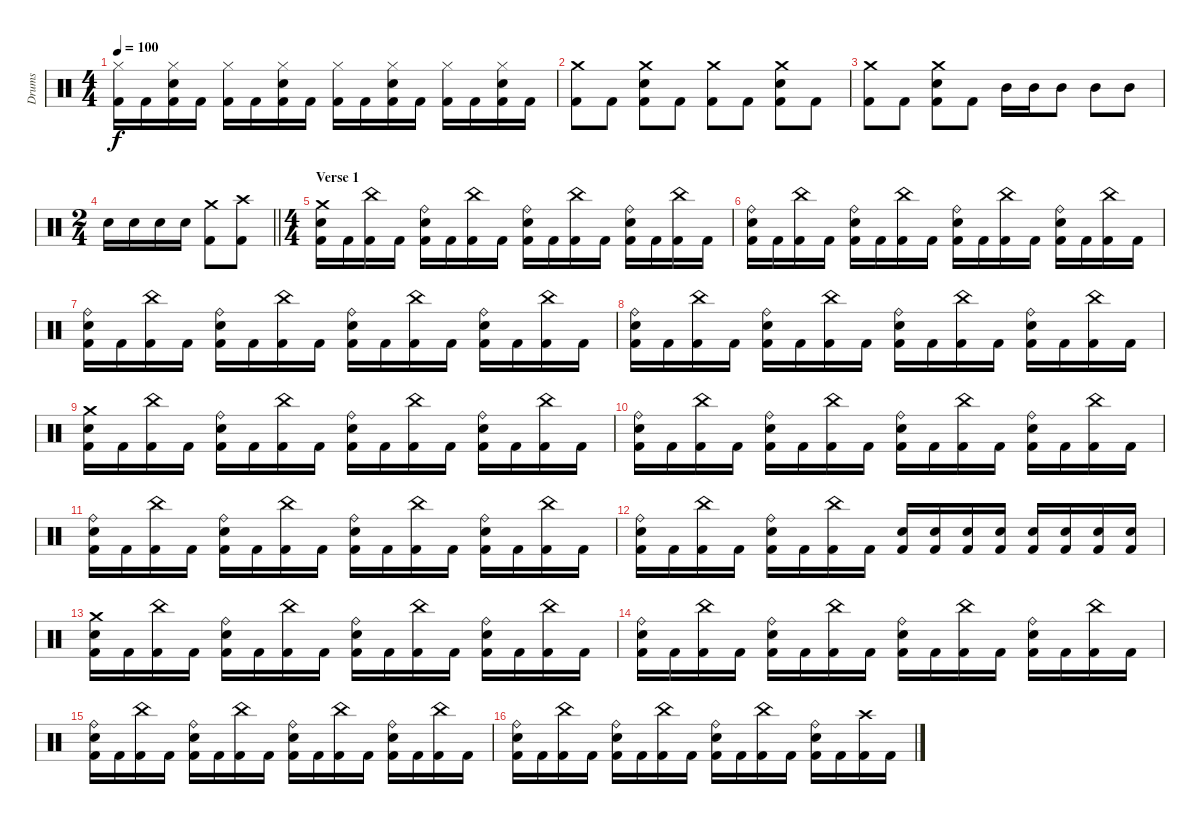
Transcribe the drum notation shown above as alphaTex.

\track ("Drums" "Drums") {instrument percussion}
\staff {score}
\articulation defaults
\ts (4 4)
\tempo 100
\clef neutral
\ks c
("Kick (hit) 2" "Hi-Hat (closed)").16{dy f} "Kick (hit) 2".16 ("Kick (hit) 2" "Snare (hit) 2" "Hi-Hat (closed)").16 "Kick (hit) 2".16 ("Kick (hit) 2" "Hi-Hat (closed)").16 "Kick (hit) 2".16 ("Kick (hit) 2" "Snare (hit) 2" "Hi-Hat (closed)").16 "Kick (hit) 2".16 ("Kick (hit) 2" "Hi-Hat (closed)").16 "Kick (hit) 2".16 ("Kick (hit) 2" "Snare (hit) 2" "Hi-Hat (closed)").16 "Kick (hit) 2".16 ("Kick (hit) 2" "Hi-Hat (closed)").16 "Kick (hit) 2".16 ("Kick (hit) 2" "Snare (hit) 2" "Hi-Hat (closed)").16 "Kick (hit) 2".16 |
("Kick (hit) 2" "Crash medium (hit)").8 "Kick (hit) 2".8 ("Kick (hit) 2" "Snare (hit) 2" "Crash medium (hit)").8 "Kick (hit) 2".8 ("Kick (hit) 2" "Crash medium (hit)").8 "Kick (hit) 2".8 ("Kick (hit) 2" "Snare (hit) 2" "Crash medium (hit)").8 "Kick (hit) 2".8 |
("Kick (hit) 2" "Crash medium (hit)").8 "Kick (hit) 2".8 ("Kick (hit) 2" "Snare (hit) 2" "Crash medium (hit)").8 "Kick (hit) 2".8 "Mid Tom (hit)".16 "Mid Tom (hit)".16 "Mid Tom (hit)".8 "Mid Tom (hit)".8 "Mid Tom (hit)".8 |
\ts (2 4)
\barLineRight lightlight "Snare (hit) 2".16 "Snare (hit) 2".16 "Snare (hit) 2".16 "Snare (hit) 2".16
("Kick (hit) 2" "Crash medium (hit)").8 ("Kick (hit) 2" "Crash high (hit)").8 |
\ts (4 4)
\section ("" "Verse 1")
("Kick (hit) 2" "Snare (hit) 2" "Crash medium (hit)").16 "Kick (hit) 2".16 ("Kick (hit) 2" "China (hit)").16 "Kick (hit) 2".16 ("Kick (hit) 2" "Snare (hit) 2" "Ride (bell)").16 "Kick (hit) 2".16 ("Kick (hit) 2" "China (hit)").16 "Kick (hit) 2".16 ("Kick (hit) 2" "Snare (hit) 2" "Ride (bell)").16 "Kick (hit) 2".16 ("Kick (hit) 2" "China (hit)").16 "Kick (hit) 2".16 ("Kick (hit) 2" "Snare (hit) 2" "Ride (bell)").16 "Kick (hit) 2".16 ("Kick (hit) 2" "China (hit)").16 "Kick (hit) 2".16 |
("Kick (hit) 2" "Snare (hit) 2" "Ride (bell)").16 "Kick (hit) 2".16 ("Kick (hit) 2" "China (hit)").16 "Kick (hit) 2".16 ("Kick (hit) 2" "Snare (hit) 2" "Ride (bell)").16 "Kick (hit) 2".16 ("Kick (hit) 2" "China (hit)").16 "Kick (hit) 2".16 ("Kick (hit) 2" "Snare (hit) 2" "Ride (bell)").16 "Kick (hit) 2".16 ("Kick (hit) 2" "China (hit)").16 "Kick (hit) 2".16 ("Kick (hit) 2" "Snare (hit) 2" "Ride (bell)").16 "Kick (hit) 2".16 ("Kick (hit) 2" "China (hit)").16 "Kick (hit) 2".16 |
("Kick (hit) 2" "Snare (hit) 2" "Ride (bell)").16 "Kick (hit) 2".16 ("Kick (hit) 2" "China (hit)").16 "Kick (hit) 2".16 ("Kick (hit) 2" "Snare (hit) 2" "Ride (bell)").16 "Kick (hit) 2".16 ("Kick (hit) 2" "China (hit)").16 "Kick (hit) 2".16 ("Kick (hit) 2" "Snare (hit) 2" "Ride (bell)").16 "Kick (hit) 2".16 ("Kick (hit) 2" "China (hit)").16 "Kick (hit) 2".16 ("Kick (hit) 2" "Snare (hit) 2" "Ride (bell)").16 "Kick (hit) 2".16 ("Kick (hit) 2" "China (hit)").16 "Kick (hit) 2".16 |
("Kick (hit) 2" "Snare (hit) 2" "Ride (bell)").16 "Kick (hit) 2".16 ("Kick (hit) 2" "China (hit)").16 "Kick (hit) 2".16 ("Kick (hit) 2" "Snare (hit) 2" "Ride (bell)").16 "Kick (hit) 2".16 ("Kick (hit) 2" "China (hit)").16 "Kick (hit) 2".16 ("Kick (hit) 2" "Snare (hit) 2" "Ride (bell)").16 "Kick (hit) 2".16 ("Kick (hit) 2" "China (hit)").16 "Kick (hit) 2".16 ("Kick (hit) 2" "Snare (hit) 2" "Ride (bell)").16 "Kick (hit) 2".16 ("Kick (hit) 2" "China (hit)").16 "Kick (hit) 2".16 |
("Kick (hit) 2" "Snare (hit) 2" "Crash medium (hit)").16 "Kick (hit) 2".16 ("Kick (hit) 2" "China (hit)").16 "Kick (hit) 2".16 ("Kick (hit) 2" "Snare (hit) 2" "Ride (bell)").16 "Kick (hit) 2".16 ("Kick (hit) 2" "China (hit)").16 "Kick (hit) 2".16 ("Kick (hit) 2" "Snare (hit) 2" "Ride (bell)").16 "Kick (hit) 2".16 ("Kick (hit) 2" "China (hit)").16 "Kick (hit) 2".16 ("Kick (hit) 2" "Snare (hit) 2" "Ride (bell)").16 "Kick (hit) 2".16 ("Kick (hit) 2" "China (hit)").16 "Kick (hit) 2".16 |
("Kick (hit) 2" "Snare (hit) 2" "Ride (bell)").16 "Kick (hit) 2".16 ("Kick (hit) 2" "China (hit)").16 "Kick (hit) 2".16 ("Kick (hit) 2" "Snare (hit) 2" "Ride (bell)").16 "Kick (hit) 2".16 ("Kick (hit) 2" "China (hit)").16 "Kick (hit) 2".16 ("Kick (hit) 2" "Snare (hit) 2" "Ride (bell)").16 "Kick (hit) 2".16 ("Kick (hit) 2" "China (hit)").16 "Kick (hit) 2".16 ("Kick (hit) 2" "Snare (hit) 2" "Ride (bell)").16 "Kick (hit) 2".16 ("Kick (hit) 2" "China (hit)").16 "Kick (hit) 2".16 |
("Kick (hit) 2" "Snare (hit) 2" "Ride (bell)").16 "Kick (hit) 2".16 ("Kick (hit) 2" "China (hit)").16 "Kick (hit) 2".16 ("Kick (hit) 2" "Snare (hit) 2" "Ride (bell)").16 "Kick (hit) 2".16 ("Kick (hit) 2" "China (hit)").16 "Kick (hit) 2".16 ("Kick (hit) 2" "Snare (hit) 2" "Ride (bell)").16 "Kick (hit) 2".16 ("Kick (hit) 2" "China (hit)").16 "Kick (hit) 2".16 ("Kick (hit) 2" "Snare (hit) 2" "Ride (bell)").16 "Kick (hit) 2".16 ("Kick (hit) 2" "China (hit)").16 "Kick (hit) 2".16 |
("Kick (hit) 2" "Snare (hit) 2" "Ride (bell)").16 "Kick (hit) 2".16 ("Kick (hit) 2" "China (hit)").16 "Kick (hit) 2".16 ("Kick (hit) 2" "Snare (hit) 2" "Ride (bell)").16 "Kick (hit) 2".16 ("Kick (hit) 2" "China (hit)").16 "Kick (hit) 2".16 ("Kick (hit) 2" "Snare (hit) 2").16 ("Kick (hit) 2" "Snare (hit) 2").16 ("Kick (hit) 2" "Snare (hit) 2").16 ("Kick (hit) 2" "Snare (hit) 2").16 ("Kick (hit) 2" "Snare (hit) 2").16 ("Kick (hit) 2" "Snare (hit) 2").16 ("Kick (hit) 2" "Snare (hit) 2").16 ("Kick (hit) 2" "Snare (hit) 2").16 |
("Kick (hit) 2" "Snare (hit) 2" "Crash medium (hit)").16 "Kick (hit) 2".16 ("Kick (hit) 2" "China (hit)").16 "Kick (hit) 2".16 ("Kick (hit) 2" "Snare (hit) 2" "Ride (bell)").16 "Kick (hit) 2".16 ("Kick (hit) 2" "China (hit)").16 "Kick (hit) 2".16 ("Kick (hit) 2" "Snare (hit) 2" "Ride (bell)").16 "Kick (hit) 2".16 ("Kick (hit) 2" "China (hit)").16 "Kick (hit) 2".16 ("Kick (hit) 2" "Snare (hit) 2" "Ride (bell)").16 "Kick (hit) 2".16 ("Kick (hit) 2" "China (hit)").16 "Kick (hit) 2".16 |
("Kick (hit) 2" "Snare (hit) 2" "Ride (bell)").16 "Kick (hit) 2".16 ("Kick (hit) 2" "China (hit)").16 "Kick (hit) 2".16 ("Kick (hit) 2" "Snare (hit) 2" "Ride (bell)").16 "Kick (hit) 2".16 ("Kick (hit) 2" "China (hit)").16 "Kick (hit) 2".16 ("Kick (hit) 2" "Snare (hit) 2" "Ride (bell)").16 "Kick (hit) 2".16 ("Kick (hit) 2" "China (hit)").16 "Kick (hit) 2".16 ("Kick (hit) 2" "Snare (hit) 2" "Ride (bell)").16 "Kick (hit) 2".16 ("Kick (hit) 2" "China (hit)").16 "Kick (hit) 2".16 |
("Kick (hit) 2" "Snare (hit) 2" "Ride (bell)").16 "Kick (hit) 2".16 ("Kick (hit) 2" "China (hit)").16 "Kick (hit) 2".16 ("Kick (hit) 2" "Snare (hit) 2" "Ride (bell)").16 "Kick (hit) 2".16 ("Kick (hit) 2" "China (hit)").16 "Kick (hit) 2".16 ("Kick (hit) 2" "Snare (hit) 2" "Ride (bell)").16 "Kick (hit) 2".16 ("Kick (hit) 2" "China (hit)").16 "Kick (hit) 2".16 ("Kick (hit) 2" "Snare (hit) 2" "Ride (bell)").16 "Kick (hit) 2".16 ("Kick (hit) 2" "China (hit)").16 "Kick (hit) 2".16 |
("Kick (hit) 2" "Snare (hit) 2" "Ride (bell)").16 "Kick (hit) 2".16 ("Kick (hit) 2" "China (hit)").16 "Kick (hit) 2".16 ("Kick (hit) 2" "Snare (hit) 2" "Ride (bell)").16 "Kick (hit) 2".16 ("Kick (hit) 2" "China (hit)").16 "Kick (hit) 2".16 ("Kick (hit) 2" "Snare (hit) 2" "Ride (bell)").16 "Kick (hit) 2".16 ("Kick (hit) 2" "China (hit)").16 "Kick (hit) 2".16 ("Kick (hit) 2" "Snare (hit) 2" "Ride (bell)").16 "Kick (hit) 2".16 ("Kick (hit) 2" "Crash high (hit)").16 "Kick (hit) 2".16
